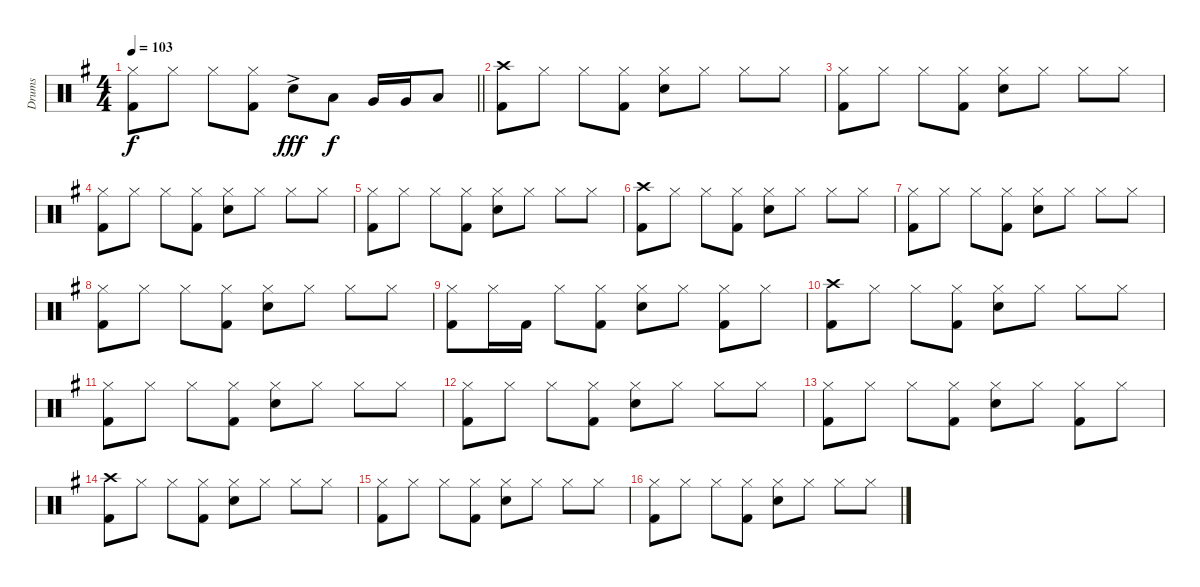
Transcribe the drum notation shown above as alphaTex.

\track ("Drums" "Drums") {instrument percussion}
\staff {score}
\articulation defaults
\ts (4 4)
\tempo 103
\clef neutral
\barLineRight lightlight
\ks eminor
("Hi-Hat (closed)" "Kick (hit) 2").8{dy f} "Hi-Hat (closed)".8 "Hi-Hat (closed)".8 ("Hi-Hat (closed)" "Kick (hit) 2").8 "Snare (hit) 2"{ac}.8{dy fff} "Low Tom (hit)".8{dy f} "Very Low Tom (hit)".16 "Very Low Tom (hit)".16 "Low Floor Tom (hit)".8 |
("Crash high (hit)" "Kick (hit) 2").8 "Hi-Hat (closed)".8 "Hi-Hat (closed)".8 ("Hi-Hat (closed)" "Kick (hit) 2").8 ("Hi-Hat (closed)" "Snare (hit) 2").8 "Hi-Hat (closed)".8 "Hi-Hat (closed)".8 "Hi-Hat (closed)".8 |
("Hi-Hat (closed)" "Kick (hit) 2").8 "Hi-Hat (closed)".8 "Hi-Hat (closed)".8 ("Hi-Hat (closed)" "Kick (hit) 2").8 ("Hi-Hat (closed)" "Snare (hit) 2").8 "Hi-Hat (closed)".8 "Hi-Hat (closed)".8 "Hi-Hat (closed)".8 |
("Hi-Hat (closed)" "Kick (hit) 2").8 "Hi-Hat (closed)".8 "Hi-Hat (closed)".8 ("Hi-Hat (closed)" "Kick (hit) 2").8 ("Hi-Hat (closed)" "Snare (hit) 2").8 "Hi-Hat (closed)".8 "Hi-Hat (closed)".8 "Hi-Hat (closed)".8 |
("Hi-Hat (closed)" "Kick (hit) 2").8 "Hi-Hat (closed)".8 "Hi-Hat (closed)".8 ("Hi-Hat (closed)" "Kick (hit) 2").8 ("Hi-Hat (closed)" "Snare (hit) 2").8 "Hi-Hat (closed)".8 "Hi-Hat (closed)".8 "Hi-Hat (closed)".8 |
("Crash high (hit)" "Kick (hit) 2").8 "Hi-Hat (closed)".8 "Hi-Hat (closed)".8 ("Hi-Hat (closed)" "Kick (hit) 2").8 ("Hi-Hat (closed)" "Snare (hit) 2").8 "Hi-Hat (closed)".8 "Hi-Hat (closed)".8 "Hi-Hat (closed)".8 |
("Hi-Hat (closed)" "Kick (hit) 2").8 "Hi-Hat (closed)".8 "Hi-Hat (closed)".8 ("Hi-Hat (closed)" "Kick (hit) 2").8 ("Hi-Hat (closed)" "Snare (hit) 2").8 "Hi-Hat (closed)".8 "Hi-Hat (closed)".8 "Hi-Hat (closed)".8 |
("Hi-Hat (closed)" "Kick (hit) 2").8 "Hi-Hat (closed)".8 "Hi-Hat (closed)".8 ("Hi-Hat (closed)" "Kick (hit) 2").8 ("Hi-Hat (closed)" "Snare (hit) 2").8 "Hi-Hat (closed)".8 "Hi-Hat (closed)".8 "Hi-Hat (closed)".8 |
("Hi-Hat (closed)" "Kick (hit) 2").8 "Hi-Hat (closed)".16 "Kick (hit) 2".16 "Hi-Hat (closed)".8 ("Hi-Hat (closed)" "Kick (hit) 2").8 ("Hi-Hat (closed)" "Snare (hit) 2").8 "Hi-Hat (closed)".8 ("Hi-Hat (closed)" "Kick (hit) 2").8 "Hi-Hat (closed)".8 |
("Crash high (hit)" "Kick (hit) 2").8 "Hi-Hat (closed)".8 "Hi-Hat (closed)".8 ("Hi-Hat (closed)" "Kick (hit) 2").8 ("Hi-Hat (closed)" "Snare (hit) 2").8 "Hi-Hat (closed)".8 "Hi-Hat (closed)".8 "Hi-Hat (closed)".8 |
("Hi-Hat (closed)" "Kick (hit) 2").8 "Hi-Hat (closed)".8 "Hi-Hat (closed)".8 ("Hi-Hat (closed)" "Kick (hit) 2").8 ("Hi-Hat (closed)" "Snare (hit) 2").8 "Hi-Hat (closed)".8 "Hi-Hat (closed)".8 "Hi-Hat (closed)".8 |
("Hi-Hat (closed)" "Kick (hit) 2").8 "Hi-Hat (closed)".8 "Hi-Hat (closed)".8 ("Hi-Hat (closed)" "Kick (hit) 2").8 ("Hi-Hat (closed)" "Snare (hit) 2").8 "Hi-Hat (closed)".8 "Hi-Hat (closed)".8 "Hi-Hat (closed)".8 |
("Hi-Hat (closed)" "Kick (hit) 2").8 "Hi-Hat (closed)".8 "Hi-Hat (closed)".8 ("Hi-Hat (closed)" "Kick (hit) 2").8 ("Hi-Hat (closed)" "Snare (hit) 2").8 "Hi-Hat (closed)".8 ("Hi-Hat (closed)" "Kick (hit) 2").8 "Hi-Hat (closed)".8 |
("Crash high (hit)" "Kick (hit) 2").8 "Hi-Hat (closed)".8 "Hi-Hat (closed)".8 ("Hi-Hat (closed)" "Kick (hit) 2").8 ("Hi-Hat (closed)" "Snare (hit) 2").8 "Hi-Hat (closed)".8 "Hi-Hat (closed)".8 "Hi-Hat (closed)".8 |
("Hi-Hat (closed)" "Kick (hit) 2").8 "Hi-Hat (closed)".8 "Hi-Hat (closed)".8 ("Hi-Hat (closed)" "Kick (hit) 2").8 ("Hi-Hat (closed)" "Snare (hit) 2").8 "Hi-Hat (closed)".8 "Hi-Hat (closed)".8 "Hi-Hat (closed)".8 |
("Hi-Hat (closed)" "Kick (hit) 2").8 "Hi-Hat (closed)".8 "Hi-Hat (closed)".8 ("Hi-Hat (closed)" "Kick (hit) 2").8 ("Hi-Hat (closed)" "Snare (hit) 2").8 "Hi-Hat (closed)".8 "Hi-Hat (closed)".8 "Hi-Hat (closed)".8
